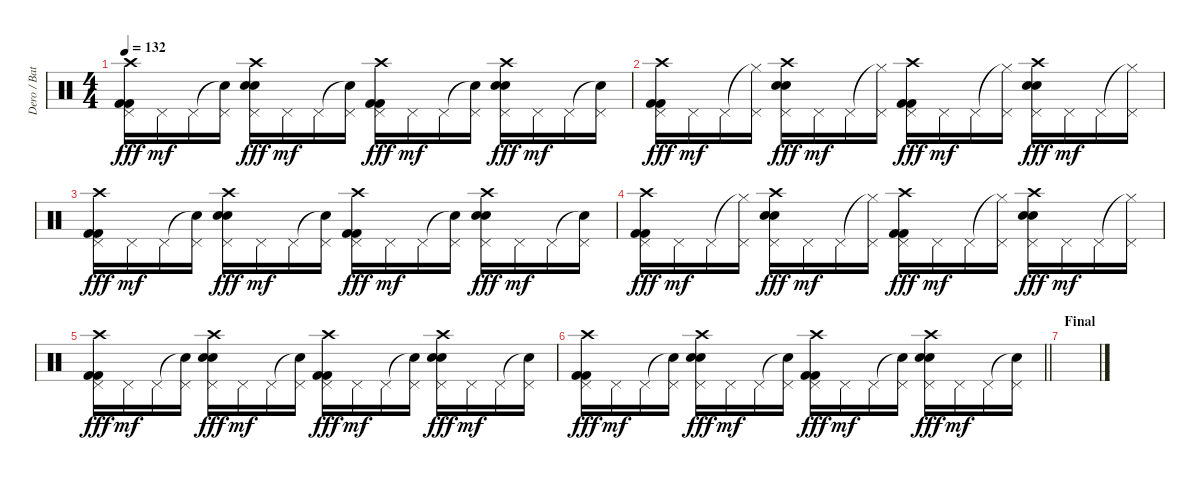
\track ("Dero / Bateria" "Dero / Bat") {instrument percussion}
\staff {score}
\articulation defaults
\ts (4 4)
\tempo 132
\clef neutral
\ks c
("Crash high (hit)" "Pedal Hi-Hat (hit)" "Kick (hit) 2" "Kick (hit) 2").16{dy fff} "Pedal Hi-Hat (hit)".16{dy mf} "Pedal Hi-Hat (hit)".16 ("Snare (hit)"{t} "Pedal Hi-Hat (hit)").16 ("Crash high (hit)" "Pedal Hi-Hat (hit)" "Electric Snare (hit)" "Electric Snare (hit)").16{dy fff} "Pedal Hi-Hat (hit)".16{dy mf} "Pedal Hi-Hat (hit)".16 ("Snare (hit)"{t} "Pedal Hi-Hat (hit)").16 ("Crash high (hit)" "Pedal Hi-Hat (hit)" "Kick (hit) 2" "Kick (hit) 2").16{dy fff} "Pedal Hi-Hat (hit)".16{dy mf} "Pedal Hi-Hat (hit)".16 ("Snare (hit)"{t} "Pedal Hi-Hat (hit)").16 ("Crash high (hit)" "Pedal Hi-Hat (hit)" "Electric Snare (hit)" "Electric Snare (hit)").16{dy fff} "Pedal Hi-Hat (hit)".16{dy mf} "Pedal Hi-Hat (hit)".16 ("Snare (hit)"{t} "Pedal Hi-Hat (hit)").16 |
("Crash high (hit)" "Pedal Hi-Hat (hit)" "Kick (hit) 2" "Kick (hit) 2").16{dy fff} "Pedal Hi-Hat (hit)".16{dy mf} "Pedal Hi-Hat (hit)".16 ("Hi-Hat (closed)"{t} "Pedal Hi-Hat (hit)").16 ("Crash high (hit)" "Pedal Hi-Hat (hit)" "Electric Snare (hit)" "Electric Snare (hit)").16{dy fff} "Pedal Hi-Hat (hit)".16{dy mf} "Pedal Hi-Hat (hit)".16 ("Hi-Hat (closed)"{t} "Pedal Hi-Hat (hit)").16 ("Crash high (hit)" "Pedal Hi-Hat (hit)" "Kick (hit) 2" "Kick (hit) 2").16{dy fff} "Pedal Hi-Hat (hit)".16{dy mf} "Pedal Hi-Hat (hit)".16 ("Hi-Hat (closed)"{t} "Pedal Hi-Hat (hit)").16 ("Crash high (hit)" "Pedal Hi-Hat (hit)" "Electric Snare (hit)" "Electric Snare (hit)").16{dy fff} "Pedal Hi-Hat (hit)".16{dy mf} "Pedal Hi-Hat (hit)".16 ("Hi-Hat (closed)"{t} "Pedal Hi-Hat (hit)").16 |
("Crash high (hit)" "Pedal Hi-Hat (hit)" "Kick (hit) 2" "Kick (hit) 2").16{dy fff} "Pedal Hi-Hat (hit)".16{dy mf} "Pedal Hi-Hat (hit)".16 ("Snare (hit)"{t} "Pedal Hi-Hat (hit)").16 ("Crash high (hit)" "Pedal Hi-Hat (hit)" "Electric Snare (hit)" "Electric Snare (hit)").16{dy fff} "Pedal Hi-Hat (hit)".16{dy mf} "Pedal Hi-Hat (hit)".16 ("Snare (hit)"{t} "Pedal Hi-Hat (hit)").16 ("Crash high (hit)" "Pedal Hi-Hat (hit)" "Kick (hit) 2" "Kick (hit) 2").16{dy fff} "Pedal Hi-Hat (hit)".16{dy mf} "Pedal Hi-Hat (hit)".16 ("Snare (hit)"{t} "Pedal Hi-Hat (hit)").16 ("Crash high (hit)" "Pedal Hi-Hat (hit)" "Electric Snare (hit)" "Electric Snare (hit)").16{dy fff} "Pedal Hi-Hat (hit)".16{dy mf} "Pedal Hi-Hat (hit)".16 ("Snare (hit)"{t} "Pedal Hi-Hat (hit)").16 |
("Crash high (hit)" "Pedal Hi-Hat (hit)" "Kick (hit) 2" "Kick (hit) 2").16{dy fff} "Pedal Hi-Hat (hit)".16{dy mf} "Pedal Hi-Hat (hit)".16 ("Hi-Hat (closed)"{t} "Pedal Hi-Hat (hit)").16 ("Crash high (hit)" "Pedal Hi-Hat (hit)" "Electric Snare (hit)" "Electric Snare (hit)").16{dy fff} "Pedal Hi-Hat (hit)".16{dy mf} "Pedal Hi-Hat (hit)".16 ("Hi-Hat (closed)"{t} "Pedal Hi-Hat (hit)").16 ("Crash high (hit)" "Pedal Hi-Hat (hit)" "Kick (hit) 2" "Kick (hit) 2").16{dy fff} "Pedal Hi-Hat (hit)".16{dy mf} "Pedal Hi-Hat (hit)".16 ("Hi-Hat (closed)"{t} "Pedal Hi-Hat (hit)").16 ("Crash high (hit)" "Pedal Hi-Hat (hit)" "Electric Snare (hit)" "Electric Snare (hit)").16{dy fff} "Pedal Hi-Hat (hit)".16{dy mf} "Pedal Hi-Hat (hit)".16 ("Hi-Hat (closed)"{t} "Pedal Hi-Hat (hit)").16 |
("Crash high (hit)" "Pedal Hi-Hat (hit)" "Kick (hit) 2" "Kick (hit) 2").16{dy fff} "Pedal Hi-Hat (hit)".16{dy mf} "Pedal Hi-Hat (hit)".16 ("Snare (hit)"{t} "Pedal Hi-Hat (hit)").16 ("Crash high (hit)" "Pedal Hi-Hat (hit)" "Electric Snare (hit)" "Electric Snare (hit)").16{dy fff} "Pedal Hi-Hat (hit)".16{dy mf} "Pedal Hi-Hat (hit)".16 ("Snare (hit)"{t} "Pedal Hi-Hat (hit)").16 ("Crash high (hit)" "Pedal Hi-Hat (hit)" "Kick (hit) 2" "Kick (hit) 2").16{dy fff} "Pedal Hi-Hat (hit)".16{dy mf} "Pedal Hi-Hat (hit)".16 ("Snare (hit)"{t} "Pedal Hi-Hat (hit)").16 ("Crash high (hit)" "Pedal Hi-Hat (hit)" "Electric Snare (hit)" "Electric Snare (hit)").16{dy fff} "Pedal Hi-Hat (hit)".16{dy mf} "Pedal Hi-Hat (hit)".16 ("Snare (hit)"{t} "Pedal Hi-Hat (hit)").16 |
\barLineRight lightlight
("Crash high (hit)" "Pedal Hi-Hat (hit)" "Kick (hit) 2" "Kick (hit) 2").16{dy fff} "Pedal Hi-Hat (hit)".16{dy mf} "Pedal Hi-Hat (hit)".16 ("Snare (hit)"{t} "Pedal Hi-Hat (hit)").16 ("Crash high (hit)" "Pedal Hi-Hat (hit)" "Electric Snare (hit)" "Electric Snare (hit)").16{dy fff} "Pedal Hi-Hat (hit)".16{dy mf} "Pedal Hi-Hat (hit)".16 ("Snare (hit)"{t} "Pedal Hi-Hat (hit)").16 ("Crash high (hit)" "Pedal Hi-Hat (hit)" "Kick (hit) 2" "Kick (hit) 2").16{dy fff} "Pedal Hi-Hat (hit)".16{dy mf} "Pedal Hi-Hat (hit)".16 ("Snare (hit)"{t} "Pedal Hi-Hat (hit)").16 ("Crash high (hit)" "Pedal Hi-Hat (hit)" "Electric Snare (hit)" "Electric Snare (hit)").16{dy fff} "Pedal Hi-Hat (hit)".16{dy mf} "Pedal Hi-Hat (hit)".16 ("Snare (hit)"{t} "Pedal Hi-Hat (hit)").16 |
\section ("" "Final")
